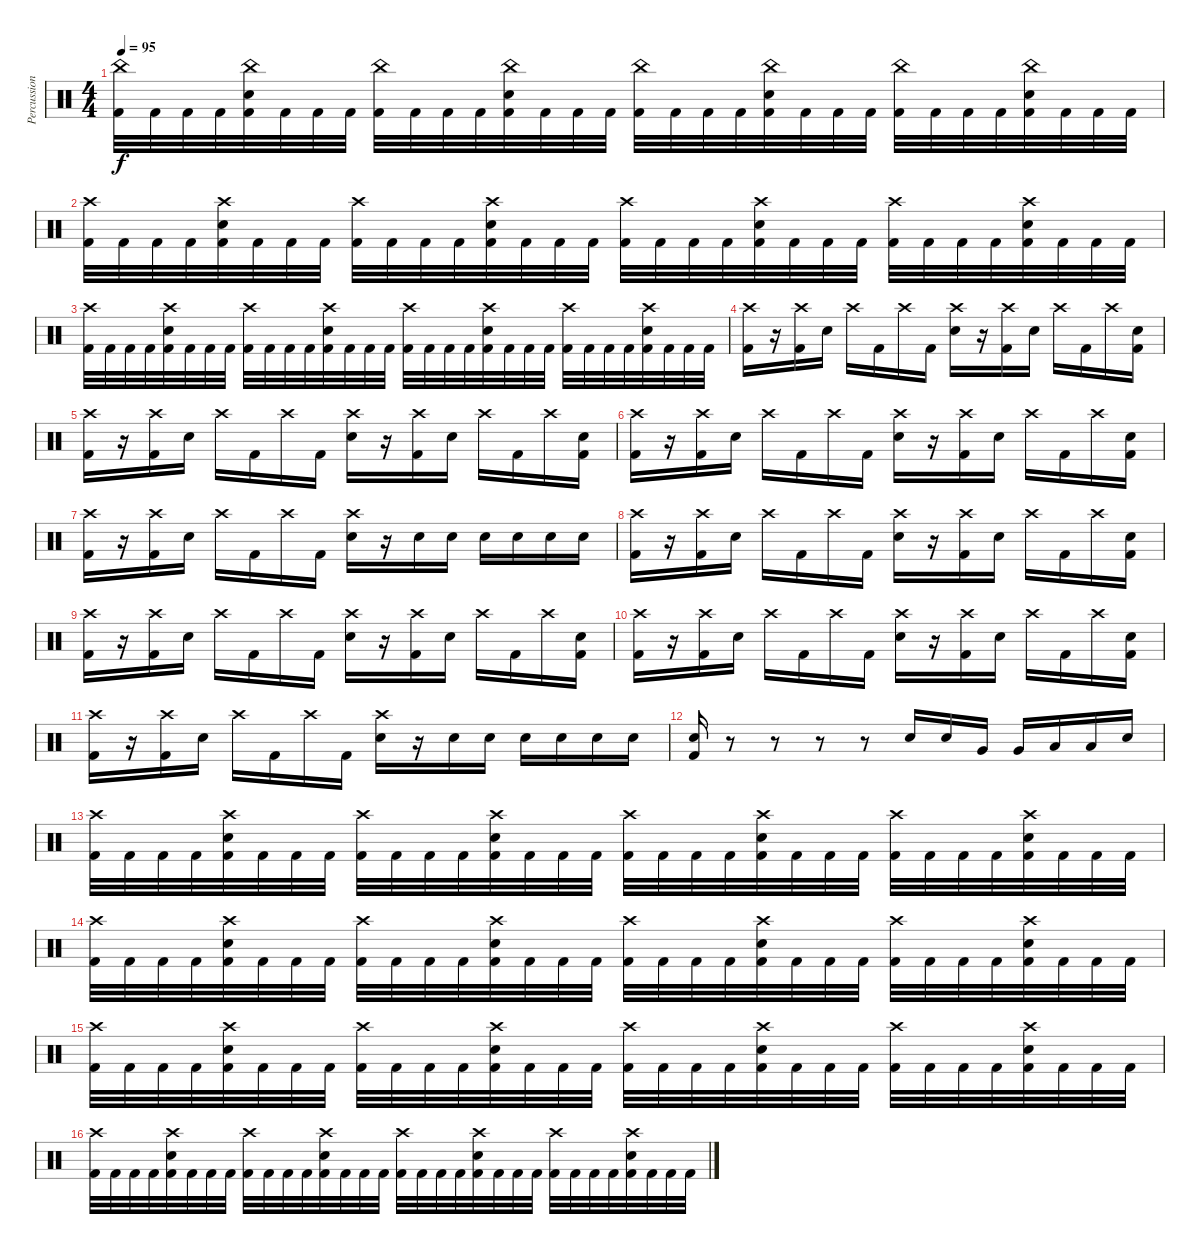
\track ("Percussion" "Percussion") {instrument percussion}
\staff {score}
\articulation defaults
\ts (4 4)
\tempo 95
\clef neutral
\ks c
("China (hit)" "Kick (hit) 2").32{dy f} "Kick (hit) 2".32 "Kick (hit) 2".32 "Kick (hit) 2".32 ("China (hit)" "Snare (hit) 2" "Kick (hit) 2").32 "Kick (hit) 2".32 "Kick (hit) 2".32 "Kick (hit) 2".32 ("China (hit)" "Kick (hit) 2").32 "Kick (hit) 2".32 "Kick (hit) 2".32 "Kick (hit) 2".32 ("China (hit)" "Snare (hit) 2" "Kick (hit) 2").32 "Kick (hit) 2".32 "Kick (hit) 2".32 "Kick (hit) 2".32 ("China (hit)" "Kick (hit) 2").32 "Kick (hit) 2".32 "Kick (hit) 2".32 "Kick (hit) 2".32 ("China (hit)" "Snare (hit) 2" "Kick (hit) 2").32 "Kick (hit) 2".32 "Kick (hit) 2".32 "Kick (hit) 2".32 ("China (hit)" "Kick (hit) 2").32 "Kick (hit) 2".32 "Kick (hit) 2".32 "Kick (hit) 2".32 ("China (hit)" "Snare (hit) 2" "Kick (hit) 2").32 "Kick (hit) 2".32 "Kick (hit) 2".32 "Kick (hit) 2".32 |
("Crash high (hit)" "Kick (hit) 2").32 "Kick (hit) 2".32 "Kick (hit) 2".32 "Kick (hit) 2".32 ("Crash high (hit)" "Snare (hit) 2" "Kick (hit) 2").32 "Kick (hit) 2".32 "Kick (hit) 2".32 "Kick (hit) 2".32 ("Crash high (hit)" "Kick (hit) 2").32 "Kick (hit) 2".32 "Kick (hit) 2".32 "Kick (hit) 2".32 ("Crash high (hit)" "Snare (hit) 2" "Kick (hit) 2").32 "Kick (hit) 2".32 "Kick (hit) 2".32 "Kick (hit) 2".32 ("Crash high (hit)" "Kick (hit) 2").32 "Kick (hit) 2".32 "Kick (hit) 2".32 "Kick (hit) 2".32 ("Crash high (hit)" "Snare (hit) 2" "Kick (hit) 2").32 "Kick (hit) 2".32 "Kick (hit) 2".32 "Kick (hit) 2".32 ("Crash high (hit)" "Kick (hit) 2").32 "Kick (hit) 2".32 "Kick (hit) 2".32 "Kick (hit) 2".32 ("Crash high (hit)" "Snare (hit) 2" "Kick (hit) 2").32 "Kick (hit) 2".32 "Kick (hit) 2".32 "Kick (hit) 2".32 |
("Crash high (hit)" "Kick (hit) 2").32 "Kick (hit) 2".32 "Kick (hit) 2".32 "Kick (hit) 2".32 ("Crash high (hit)" "Snare (hit) 2" "Kick (hit) 2").32 "Kick (hit) 2".32 "Kick (hit) 2".32 "Kick (hit) 2".32 ("Crash high (hit)" "Kick (hit) 2").32 "Kick (hit) 2".32 "Kick (hit) 2".32 "Kick (hit) 2".32 ("Crash high (hit)" "Snare (hit) 2" "Kick (hit) 2").32 "Kick (hit) 2".32 "Kick (hit) 2".32 "Kick (hit) 2".32 ("Crash high (hit)" "Kick (hit) 2").32 "Kick (hit) 2".32 "Kick (hit) 2".32 "Kick (hit) 2".32 ("Crash high (hit)" "Snare (hit) 2" "Kick (hit) 2").32 "Kick (hit) 2".32 "Kick (hit) 2".32 "Kick (hit) 2".32 ("Crash high (hit)" "Kick (hit) 2").32 "Kick (hit) 2".32 "Kick (hit) 2".32 "Kick (hit) 2".32 ("Crash high (hit)" "Snare (hit) 2" "Kick (hit) 2").32 "Kick (hit) 2".32 "Kick (hit) 2".32 "Kick (hit) 2".32 |
("Crash high (hit)" "Kick (hit) 2").16 r.16 ("Crash high (hit)" "Kick (hit) 2").16 "Snare (hit) 2".16 "Crash high (hit)".16 "Kick (hit) 2".16 "Crash high (hit)".16 "Kick (hit) 2".16 ("Crash high (hit)" "Snare (hit) 2").16 r.16 ("Crash high (hit)" "Kick (hit) 2").16 "Snare (hit) 2".16 "Crash high (hit)".16 "Kick (hit) 2".16 "Crash high (hit)".16 ("Snare (hit) 2" "Kick (hit) 2").16 |
("Crash high (hit)" "Kick (hit) 2").16 r.16 ("Crash high (hit)" "Kick (hit) 2").16 "Snare (hit) 2".16 "Crash high (hit)".16 "Kick (hit) 2".16 "Crash high (hit)".16 "Kick (hit) 2".16 ("Crash high (hit)" "Snare (hit) 2").16 r.16 ("Crash high (hit)" "Kick (hit) 2").16 "Snare (hit) 2".16 "Crash high (hit)".16 "Kick (hit) 2".16 "Crash high (hit)".16 ("Snare (hit) 2" "Kick (hit) 2").16 |
("Crash high (hit)" "Kick (hit) 2").16 r.16 ("Crash high (hit)" "Kick (hit) 2").16 "Snare (hit) 2".16 "Crash high (hit)".16 "Kick (hit) 2".16 "Crash high (hit)".16 "Kick (hit) 2".16 ("Crash high (hit)" "Snare (hit) 2").16 r.16 ("Crash high (hit)" "Kick (hit) 2").16 "Snare (hit) 2".16 "Crash high (hit)".16 "Kick (hit) 2".16 "Crash high (hit)".16 ("Snare (hit) 2" "Kick (hit) 2").16 |
("Crash high (hit)" "Kick (hit) 2").16 r.16 ("Crash high (hit)" "Kick (hit) 2").16 "Snare (hit) 2".16 "Crash high (hit)".16 "Kick (hit) 2".16 "Crash high (hit)".16 "Kick (hit) 2".16 ("Crash high (hit)" "Snare (hit) 2").16 r.16 "Snare (hit) 2".16 "Snare (hit) 2".16 "Snare (hit) 2".16 "Snare (hit) 2".16 "Snare (hit) 2".16 "Snare (hit) 2".16 |
("Crash high (hit)" "Kick (hit) 2").16 r.16 ("Crash high (hit)" "Kick (hit) 2").16 "Snare (hit) 2".16 "Crash high (hit)".16 "Kick (hit) 2".16 "Crash high (hit)".16 "Kick (hit) 2".16 ("Crash high (hit)" "Snare (hit) 2").16 r.16 ("Crash high (hit)" "Kick (hit) 2").16 "Snare (hit) 2".16 "Crash high (hit)".16 "Kick (hit) 2".16 "Crash high (hit)".16 ("Snare (hit) 2" "Kick (hit) 2").16 |
("Crash high (hit)" "Kick (hit) 2").16 r.16 ("Crash high (hit)" "Kick (hit) 2").16 "Snare (hit) 2".16 "Crash high (hit)".16 "Kick (hit) 2".16 "Crash high (hit)".16 "Kick (hit) 2".16 ("Crash high (hit)" "Snare (hit) 2").16 r.16 ("Crash high (hit)" "Kick (hit) 2").16 "Snare (hit) 2".16 "Crash high (hit)".16 "Kick (hit) 2".16 "Crash high (hit)".16 ("Snare (hit) 2" "Kick (hit) 2").16 |
("Crash high (hit)" "Kick (hit) 2").16 r.16 ("Crash high (hit)" "Kick (hit) 2").16 "Snare (hit) 2".16 "Crash high (hit)".16 "Kick (hit) 2".16 "Crash high (hit)".16 "Kick (hit) 2".16 ("Crash high (hit)" "Snare (hit) 2").16 r.16 ("Crash high (hit)" "Kick (hit) 2").16 "Snare (hit) 2".16 "Crash high (hit)".16 "Kick (hit) 2".16 "Crash high (hit)".16 ("Snare (hit) 2" "Kick (hit) 2").16 |
("Crash high (hit)" "Kick (hit) 2").16 r.16 ("Crash high (hit)" "Kick (hit) 2").16 "Snare (hit) 2".16 "Crash high (hit)".16 "Kick (hit) 2".16 "Crash high (hit)".16 "Kick (hit) 2".16 ("Crash high (hit)" "Snare (hit) 2").16 r.16 "Snare (hit) 2".16 "Snare (hit) 2".16 "Snare (hit) 2".16 "Snare (hit) 2".16 "Snare (hit) 2".16 "Snare (hit) 2".16 |
("Snare (hit) 2" "Kick (hit) 2").16 r.8 r.8 r.8 r.8 "Snare (hit) 2".16 "Snare (hit) 2".16 "Very Low Tom (hit)".16 "Very Low Tom (hit)".16 "Low Floor Tom (hit)".16 "Low Floor Tom (hit)".16 "Snare (hit) 2".16 |
("Crash high (hit)" "Kick (hit) 2").32 "Kick (hit) 2".32 "Kick (hit) 2".32 "Kick (hit) 2".32 ("Crash high (hit)" "Snare (hit) 2" "Kick (hit) 2").32 "Kick (hit) 2".32 "Kick (hit) 2".32 "Kick (hit) 2".32 ("Crash high (hit)" "Kick (hit) 2").32 "Kick (hit) 2".32 "Kick (hit) 2".32 "Kick (hit) 2".32 ("Crash high (hit)" "Snare (hit) 2" "Kick (hit) 2").32 "Kick (hit) 2".32 "Kick (hit) 2".32 "Kick (hit) 2".32 ("Crash high (hit)" "Kick (hit) 2").32 "Kick (hit) 2".32 "Kick (hit) 2".32 "Kick (hit) 2".32 ("Crash high (hit)" "Snare (hit) 2" "Kick (hit) 2").32 "Kick (hit) 2".32 "Kick (hit) 2".32 "Kick (hit) 2".32 ("Crash high (hit)" "Kick (hit) 2").32 "Kick (hit) 2".32 "Kick (hit) 2".32 "Kick (hit) 2".32 ("Crash high (hit)" "Snare (hit) 2" "Kick (hit) 2").32 "Kick (hit) 2".32 "Kick (hit) 2".32 "Kick (hit) 2".32 |
("Crash high (hit)" "Kick (hit) 2").32 "Kick (hit) 2".32 "Kick (hit) 2".32 "Kick (hit) 2".32 ("Crash high (hit)" "Snare (hit) 2" "Kick (hit) 2").32 "Kick (hit) 2".32 "Kick (hit) 2".32 "Kick (hit) 2".32 ("Crash high (hit)" "Kick (hit) 2").32 "Kick (hit) 2".32 "Kick (hit) 2".32 "Kick (hit) 2".32 ("Crash high (hit)" "Snare (hit) 2" "Kick (hit) 2").32 "Kick (hit) 2".32 "Kick (hit) 2".32 "Kick (hit) 2".32 ("Crash high (hit)" "Kick (hit) 2").32 "Kick (hit) 2".32 "Kick (hit) 2".32 "Kick (hit) 2".32 ("Crash high (hit)" "Snare (hit) 2" "Kick (hit) 2").32 "Kick (hit) 2".32 "Kick (hit) 2".32 "Kick (hit) 2".32 ("Crash high (hit)" "Kick (hit) 2").32 "Kick (hit) 2".32 "Kick (hit) 2".32 "Kick (hit) 2".32 ("Crash high (hit)" "Snare (hit) 2" "Kick (hit) 2").32 "Kick (hit) 2".32 "Kick (hit) 2".32 "Kick (hit) 2".32 |
("Crash high (hit)" "Kick (hit) 2").32 "Kick (hit) 2".32 "Kick (hit) 2".32 "Kick (hit) 2".32 ("Crash high (hit)" "Snare (hit) 2" "Kick (hit) 2").32 "Kick (hit) 2".32 "Kick (hit) 2".32 "Kick (hit) 2".32 ("Crash high (hit)" "Kick (hit) 2").32 "Kick (hit) 2".32 "Kick (hit) 2".32 "Kick (hit) 2".32 ("Crash high (hit)" "Snare (hit) 2" "Kick (hit) 2").32 "Kick (hit) 2".32 "Kick (hit) 2".32 "Kick (hit) 2".32 ("Crash high (hit)" "Kick (hit) 2").32 "Kick (hit) 2".32 "Kick (hit) 2".32 "Kick (hit) 2".32 ("Crash high (hit)" "Snare (hit) 2" "Kick (hit) 2").32 "Kick (hit) 2".32 "Kick (hit) 2".32 "Kick (hit) 2".32 ("Crash high (hit)" "Kick (hit) 2").32 "Kick (hit) 2".32 "Kick (hit) 2".32 "Kick (hit) 2".32 ("Crash high (hit)" "Snare (hit) 2" "Kick (hit) 2").32 "Kick (hit) 2".32 "Kick (hit) 2".32 "Kick (hit) 2".32 |
("Crash high (hit)" "Kick (hit) 2").32 "Kick (hit) 2".32 "Kick (hit) 2".32 "Kick (hit) 2".32 ("Crash high (hit)" "Snare (hit) 2" "Kick (hit) 2").32 "Kick (hit) 2".32 "Kick (hit) 2".32 "Kick (hit) 2".32 ("Crash high (hit)" "Kick (hit) 2").32 "Kick (hit) 2".32 "Kick (hit) 2".32 "Kick (hit) 2".32 ("Crash high (hit)" "Snare (hit) 2" "Kick (hit) 2").32 "Kick (hit) 2".32 "Kick (hit) 2".32 "Kick (hit) 2".32 ("Crash high (hit)" "Kick (hit) 2").32 "Kick (hit) 2".32 "Kick (hit) 2".32 "Kick (hit) 2".32 ("Crash high (hit)" "Snare (hit) 2" "Kick (hit) 2").32 "Kick (hit) 2".32 "Kick (hit) 2".32 "Kick (hit) 2".32 ("Crash high (hit)" "Kick (hit) 2").32 "Kick (hit) 2".32 "Kick (hit) 2".32 "Kick (hit) 2".32 ("Crash high (hit)" "Snare (hit) 2" "Kick (hit) 2").32 "Kick (hit) 2".32 "Kick (hit) 2".32 "Kick (hit) 2".32
